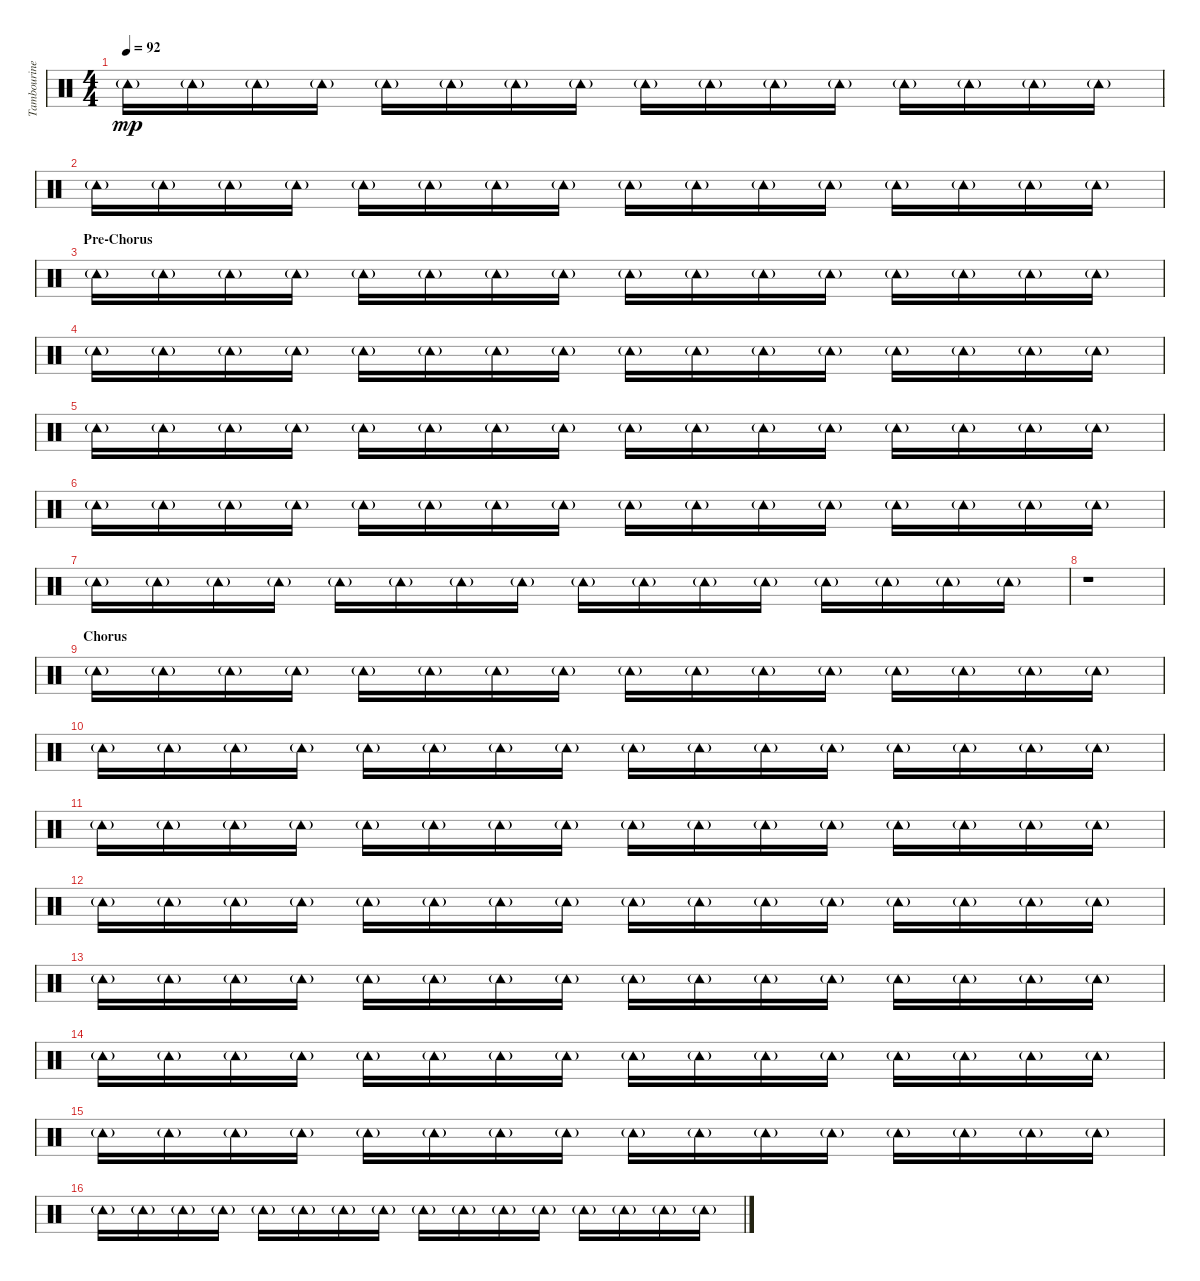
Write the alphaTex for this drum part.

\track ("Tambourine" "Tambourine") {instrument percussion}
\staff {score}
\articulation defaults
\ts (4 4)
\tempo 92
\clef neutral
\ks c "Tambourine (hit)"{g}.16{dy mp} "Tambourine (hit)"{g}.16 "Tambourine (hit)"{g}.16 "Tambourine (hit)"{g}.16 "Tambourine (hit)"{g}.16 "Tambourine (hit)"{g}.16 "Tambourine (hit)"{g}.16 "Tambourine (hit)"{g}.16 "Tambourine (hit)"{g}.16 "Tambourine (hit)"{g}.16 "Tambourine (hit)"{g}.16 "Tambourine (hit)"{g}.16 "Tambourine (hit)"{g}.16 "Tambourine (hit)"{g}.16 "Tambourine (hit)"{g}.16 "Tambourine (hit)"{g}.16
|
"Tambourine (hit)"{g}.16 "Tambourine (hit)"{g}.16 "Tambourine (hit)"{g}.16 "Tambourine (hit)"{g}.16 "Tambourine (hit)"{g}.16 "Tambourine (hit)"{g}.16 "Tambourine (hit)"{g}.16 "Tambourine (hit)"{g}.16 "Tambourine (hit)"{g}.16 "Tambourine (hit)"{g}.16 "Tambourine (hit)"{g}.16 "Tambourine (hit)"{g}.16 "Tambourine (hit)"{g}.16 "Tambourine (hit)"{g}.16 "Tambourine (hit)"{g}.16 "Tambourine (hit)"{g}.16 |
\section ("" "Pre-Chorus")
"Tambourine (hit)"{g}.16 "Tambourine (hit)"{g}.16 "Tambourine (hit)"{g}.16 "Tambourine (hit)"{g}.16 "Tambourine (hit)"{g}.16 "Tambourine (hit)"{g}.16 "Tambourine (hit)"{g}.16 "Tambourine (hit)"{g}.16 "Tambourine (hit)"{g}.16 "Tambourine (hit)"{g}.16 "Tambourine (hit)"{g}.16 "Tambourine (hit)"{g}.16 "Tambourine (hit)"{g}.16 "Tambourine (hit)"{g}.16 "Tambourine (hit)"{g}.16 "Tambourine (hit)"{g}.16 |
"Tambourine (hit)"{g}.16 "Tambourine (hit)"{g}.16 "Tambourine (hit)"{g}.16 "Tambourine (hit)"{g}.16 "Tambourine (hit)"{g}.16 "Tambourine (hit)"{g}.16 "Tambourine (hit)"{g}.16 "Tambourine (hit)"{g}.16 "Tambourine (hit)"{g}.16 "Tambourine (hit)"{g}.16 "Tambourine (hit)"{g}.16 "Tambourine (hit)"{g}.16 "Tambourine (hit)"{g}.16 "Tambourine (hit)"{g}.16 "Tambourine (hit)"{g}.16 "Tambourine (hit)"{g}.16 |
"Tambourine (hit)"{g}.16 "Tambourine (hit)"{g}.16 "Tambourine (hit)"{g}.16 "Tambourine (hit)"{g}.16 "Tambourine (hit)"{g}.16 "Tambourine (hit)"{g}.16 "Tambourine (hit)"{g}.16 "Tambourine (hit)"{g}.16 "Tambourine (hit)"{g}.16 "Tambourine (hit)"{g}.16 "Tambourine (hit)"{g}.16 "Tambourine (hit)"{g}.16 "Tambourine (hit)"{g}.16 "Tambourine (hit)"{g}.16 "Tambourine (hit)"{g}.16 "Tambourine (hit)"{g}.16 |
"Tambourine (hit)"{g}.16 "Tambourine (hit)"{g}.16 "Tambourine (hit)"{g}.16 "Tambourine (hit)"{g}.16 "Tambourine (hit)"{g}.16 "Tambourine (hit)"{g}.16 "Tambourine (hit)"{g}.16 "Tambourine (hit)"{g}.16 "Tambourine (hit)"{g}.16 "Tambourine (hit)"{g}.16 "Tambourine (hit)"{g}.16 "Tambourine (hit)"{g}.16 "Tambourine (hit)"{g}.16 "Tambourine (hit)"{g}.16 "Tambourine (hit)"{g}.16 "Tambourine (hit)"{g}.16 |
"Tambourine (hit)"{g}.16 "Tambourine (hit)"{g}.16 "Tambourine (hit)"{g}.16 "Tambourine (hit)"{g}.16 "Tambourine (hit)"{g}.16 "Tambourine (hit)"{g}.16 "Tambourine (hit)"{g}.16 "Tambourine (hit)"{g}.16 "Tambourine (hit)"{g}.16 "Tambourine (hit)"{g}.16 "Tambourine (hit)"{g}.16 "Tambourine (hit)"{g}.16 "Tambourine (hit)"{g}.16 "Tambourine (hit)"{g}.16 "Tambourine (hit)"{g}.16 "Tambourine (hit)"{g}.16 |
r.1 |
\section ("" "Chorus")
"Tambourine (hit)"{g}.16 "Tambourine (hit)"{g}.16 "Tambourine (hit)"{g}.16 "Tambourine (hit)"{g}.16 "Tambourine (hit)"{g}.16 "Tambourine (hit)"{g}.16 "Tambourine (hit)"{g}.16 "Tambourine (hit)"{g}.16 "Tambourine (hit)"{g}.16 "Tambourine (hit)"{g}.16 "Tambourine (hit)"{g}.16 "Tambourine (hit)"{g}.16 "Tambourine (hit)"{g}.16 "Tambourine (hit)"{g}.16 "Tambourine (hit)"{g}.16 "Tambourine (hit)"{g}.16 |
"Tambourine (hit)"{g}.16 "Tambourine (hit)"{g}.16 "Tambourine (hit)"{g}.16 "Tambourine (hit)"{g}.16 "Tambourine (hit)"{g}.16 "Tambourine (hit)"{g}.16 "Tambourine (hit)"{g}.16 "Tambourine (hit)"{g}.16 "Tambourine (hit)"{g}.16 "Tambourine (hit)"{g}.16 "Tambourine (hit)"{g}.16 "Tambourine (hit)"{g}.16 "Tambourine (hit)"{g}.16 "Tambourine (hit)"{g}.16 "Tambourine (hit)"{g}.16 "Tambourine (hit)"{g}.16 |
"Tambourine (hit)"{g}.16 "Tambourine (hit)"{g}.16 "Tambourine (hit)"{g}.16 "Tambourine (hit)"{g}.16 "Tambourine (hit)"{g}.16 "Tambourine (hit)"{g}.16 "Tambourine (hit)"{g}.16 "Tambourine (hit)"{g}.16 "Tambourine (hit)"{g}.16 "Tambourine (hit)"{g}.16 "Tambourine (hit)"{g}.16 "Tambourine (hit)"{g}.16 "Tambourine (hit)"{g}.16 "Tambourine (hit)"{g}.16 "Tambourine (hit)"{g}.16 "Tambourine (hit)"{g}.16 |
"Tambourine (hit)"{g}.16 "Tambourine (hit)"{g}.16 "Tambourine (hit)"{g}.16 "Tambourine (hit)"{g}.16 "Tambourine (hit)"{g}.16 "Tambourine (hit)"{g}.16 "Tambourine (hit)"{g}.16 "Tambourine (hit)"{g}.16 "Tambourine (hit)"{g}.16 "Tambourine (hit)"{g}.16 "Tambourine (hit)"{g}.16 "Tambourine (hit)"{g}.16 "Tambourine (hit)"{g}.16 "Tambourine (hit)"{g}.16 "Tambourine (hit)"{g}.16 "Tambourine (hit)"{g}.16 |
"Tambourine (hit)"{g}.16 "Tambourine (hit)"{g}.16 "Tambourine (hit)"{g}.16 "Tambourine (hit)"{g}.16 "Tambourine (hit)"{g}.16 "Tambourine (hit)"{g}.16 "Tambourine (hit)"{g}.16 "Tambourine (hit)"{g}.16 "Tambourine (hit)"{g}.16 "Tambourine (hit)"{g}.16 "Tambourine (hit)"{g}.16 "Tambourine (hit)"{g}.16 "Tambourine (hit)"{g}.16 "Tambourine (hit)"{g}.16 "Tambourine (hit)"{g}.16 "Tambourine (hit)"{g}.16 |
"Tambourine (hit)"{g}.16 "Tambourine (hit)"{g}.16 "Tambourine (hit)"{g}.16 "Tambourine (hit)"{g}.16 "Tambourine (hit)"{g}.16 "Tambourine (hit)"{g}.16 "Tambourine (hit)"{g}.16 "Tambourine (hit)"{g}.16 "Tambourine (hit)"{g}.16 "Tambourine (hit)"{g}.16 "Tambourine (hit)"{g}.16 "Tambourine (hit)"{g}.16 "Tambourine (hit)"{g}.16 "Tambourine (hit)"{g}.16 "Tambourine (hit)"{g}.16 "Tambourine (hit)"{g}.16 |
"Tambourine (hit)"{g}.16 "Tambourine (hit)"{g}.16 "Tambourine (hit)"{g}.16 "Tambourine (hit)"{g}.16 "Tambourine (hit)"{g}.16 "Tambourine (hit)"{g}.16 "Tambourine (hit)"{g}.16 "Tambourine (hit)"{g}.16 "Tambourine (hit)"{g}.16 "Tambourine (hit)"{g}.16 "Tambourine (hit)"{g}.16 "Tambourine (hit)"{g}.16 "Tambourine (hit)"{g}.16 "Tambourine (hit)"{g}.16 "Tambourine (hit)"{g}.16 "Tambourine (hit)"{g}.16 |
"Tambourine (hit)"{g}.16 "Tambourine (hit)"{g}.16 "Tambourine (hit)"{g}.16 "Tambourine (hit)"{g}.16 "Tambourine (hit)"{g}.16 "Tambourine (hit)"{g}.16 "Tambourine (hit)"{g}.16 "Tambourine (hit)"{g}.16 "Tambourine (hit)"{g}.16 "Tambourine (hit)"{g}.16 "Tambourine (hit)"{g}.16 "Tambourine (hit)"{g}.16 "Tambourine (hit)"{g}.16 "Tambourine (hit)"{g}.16 "Tambourine (hit)"{g}.16 "Tambourine (hit)"{g}.16
